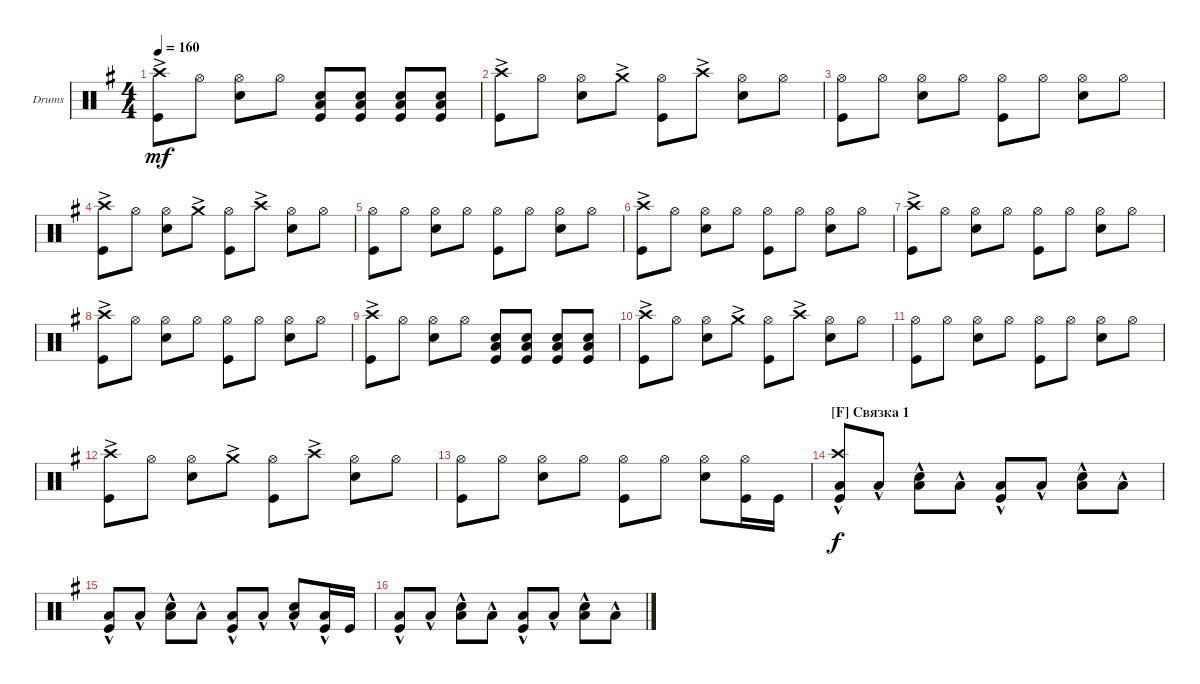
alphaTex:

\defaultSystemsLayout 4
\bracketExtendMode groupsimilarinstruments
\firstSystemTrackNameOrientation horizontal
\otherSystemsTrackNameOrientation horizontal
\track ("Drumkit" "Drums") {instrument percussion}
\staff {score}
\articulation defaults
\ts (4 4)
\tempo 160
\clef neutral
\ks eminor
("Kick (hit)" "Crash high (hit)"{ac}).8{dy mf} "Hi-Hat (open)".8 ("Hi-Hat (open)" "Snare (hit) 2").8 "Hi-Hat (open)".8 ("Snare (hit) 2" "Low Tom (hit)" "Kick (hit)").8 ("Snare (hit) 2" "Low Tom (hit)" "Kick (hit)").8 ("Snare (hit) 2" "Low Tom (hit)" "Kick (hit)").8 ("Snare (hit) 2" "Low Tom (hit)" "Kick (hit)").8 |
("Kick (hit)" "Crash high (hit)"{ac}).8 "Hi-Hat (open)".8 ("Hi-Hat (open)" "Snare (hit) 2").8 "Crash medium (hit)"{ac}.8 ("Hi-Hat (open)" "Kick (hit)").8 "Crash high (hit)"{ac}.8 ("Hi-Hat (open)" "Snare (hit) 2").8 "Hi-Hat (open)".8 |
("Kick (hit)" "Hi-Hat (open)").8 "Hi-Hat (open)".8 ("Hi-Hat (open)" "Snare (hit) 2").8 "Hi-Hat (open)".8 ("Hi-Hat (open)" "Kick (hit)").8 "Hi-Hat (open)".8 ("Hi-Hat (open)" "Snare (hit) 2").8 "Hi-Hat (open)".8 |
("Kick (hit)" "Crash high (hit)"{ac}).8 "Hi-Hat (open)".8 ("Hi-Hat (open)" "Snare (hit) 2").8 "Crash medium (hit)"{ac}.8 ("Hi-Hat (open)" "Kick (hit)").8 "Crash high (hit)"{ac}.8 ("Hi-Hat (open)" "Snare (hit) 2").8 "Hi-Hat (open)".8 |
("Kick (hit)" "Hi-Hat (open)").8 "Hi-Hat (open)".8 ("Hi-Hat (open)" "Snare (hit) 2").8 "Hi-Hat (open)".8 ("Hi-Hat (open)" "Kick (hit)").8 "Hi-Hat (open)".8 ("Hi-Hat (open)" "Snare (hit) 2").8 "Hi-Hat (open)".8 |
("Kick (hit)" "Crash high (hit)"{ac}).8 "Hi-Hat (open)".8 ("Hi-Hat (open)" "Snare (hit) 2").8 "Hi-Hat (open)".8 ("Hi-Hat (open)" "Kick (hit)").8 "Hi-Hat (open)".8 ("Hi-Hat (open)" "Snare (hit) 2").8 "Hi-Hat (open)".8 |
("Kick (hit)" "Crash high (hit)"{ac}).8 "Hi-Hat (open)".8 ("Hi-Hat (open)" "Snare (hit) 2").8 "Hi-Hat (open)".8 ("Hi-Hat (open)" "Kick (hit)").8 "Hi-Hat (open)".8 ("Hi-Hat (open)" "Snare (hit) 2").8 "Hi-Hat (open)".8 |
("Kick (hit)" "Crash high (hit)"{ac}).8 "Hi-Hat (open)".8 ("Hi-Hat (open)" "Snare (hit) 2").8 "Hi-Hat (open)".8 ("Hi-Hat (open)" "Kick (hit)").8 "Hi-Hat (open)".8 ("Hi-Hat (open)" "Snare (hit) 2").8 "Hi-Hat (open)".8 |
("Kick (hit)" "Crash high (hit)"{ac}).8 "Hi-Hat (open)".8 ("Hi-Hat (open)" "Snare (hit) 2").8 "Hi-Hat (open)".8 ("Snare (hit) 2" "Low Tom (hit)" "Kick (hit)").8 ("Snare (hit) 2" "Low Tom (hit)" "Kick (hit)").8 ("Snare (hit) 2" "Low Tom (hit)" "Kick (hit)").8 ("Snare (hit) 2" "Low Tom (hit)" "Kick (hit)").8 |
("Kick (hit)" "Crash high (hit)"{ac}).8 "Hi-Hat (open)".8 ("Hi-Hat (open)" "Snare (hit) 2").8 "Crash medium (hit)"{ac}.8 ("Hi-Hat (open)" "Kick (hit)").8 "Crash high (hit)"{ac}.8 ("Hi-Hat (open)" "Snare (hit) 2").8 "Hi-Hat (open)".8 |
("Kick (hit)" "Hi-Hat (open)").8 "Hi-Hat (open)".8 ("Hi-Hat (open)" "Snare (hit) 2").8 "Hi-Hat (open)".8 ("Hi-Hat (open)" "Kick (hit)").8 "Hi-Hat (open)".8 ("Hi-Hat (open)" "Snare (hit) 2").8 "Hi-Hat (open)".8 |
("Kick (hit)" "Crash high (hit)"{ac}).8 "Hi-Hat (open)".8 ("Hi-Hat (open)" "Snare (hit) 2").8 "Crash medium (hit)"{ac}.8 ("Hi-Hat (open)" "Kick (hit)").8 "Crash high (hit)"{ac}.8 ("Hi-Hat (open)" "Snare (hit) 2").8 "Hi-Hat (open)".8 |
("Kick (hit)" "Hi-Hat (open)").8 "Hi-Hat (open)".8 ("Hi-Hat (open)" "Snare (hit) 2").8 "Hi-Hat (open)".8 ("Hi-Hat (open)" "Kick (hit)").8 "Hi-Hat (open)".8 ("Hi-Hat (open)" "Snare (hit) 2").8 ("Hi-Hat (open)" "Kick (hit)").16 "Kick (hit)".16 |
\section ("F" "Связка 1")
("Kick (hit)" "Low Tom (hit)"{hac} "Crash high (hit)").8{dy f} "Low Tom (hit)"{hac}.8 ("Snare (hit) 2" "Low Tom (hit)"{hac}).8 "Low Tom (hit)"{hac}.8 ("Kick (hit)" "Low Tom (hit)"{hac}).8 "Low Tom (hit)"{hac}.8 ("Snare (hit) 2" "Low Tom (hit)"{hac}).8 "Low Tom (hit)"{hac}.8 |
("Kick (hit)" "Low Tom (hit)"{hac}).8 "Low Tom (hit)"{hac}.8 ("Snare (hit) 2" "Low Tom (hit)"{hac}).8 "Low Tom (hit)"{hac}.8 ("Kick (hit)" "Low Tom (hit)"{hac}).8 "Low Tom (hit)"{hac}.8 ("Snare (hit) 2" "Low Tom (hit)"{hac}).8 ("Low Tom (hit)"{hac} "Kick (hit)").16 "Kick (hit)".16 |
("Kick (hit)" "Low Tom (hit)"{hac}).8 "Low Tom (hit)"{hac}.8 ("Snare (hit) 2" "Low Tom (hit)"{hac}).8 "Low Tom (hit)"{hac}.8 ("Kick (hit)" "Low Tom (hit)"{hac}).8 "Low Tom (hit)"{hac}.8 ("Snare (hit) 2" "Low Tom (hit)"{hac}).8 "Low Tom (hit)"{hac}.8
